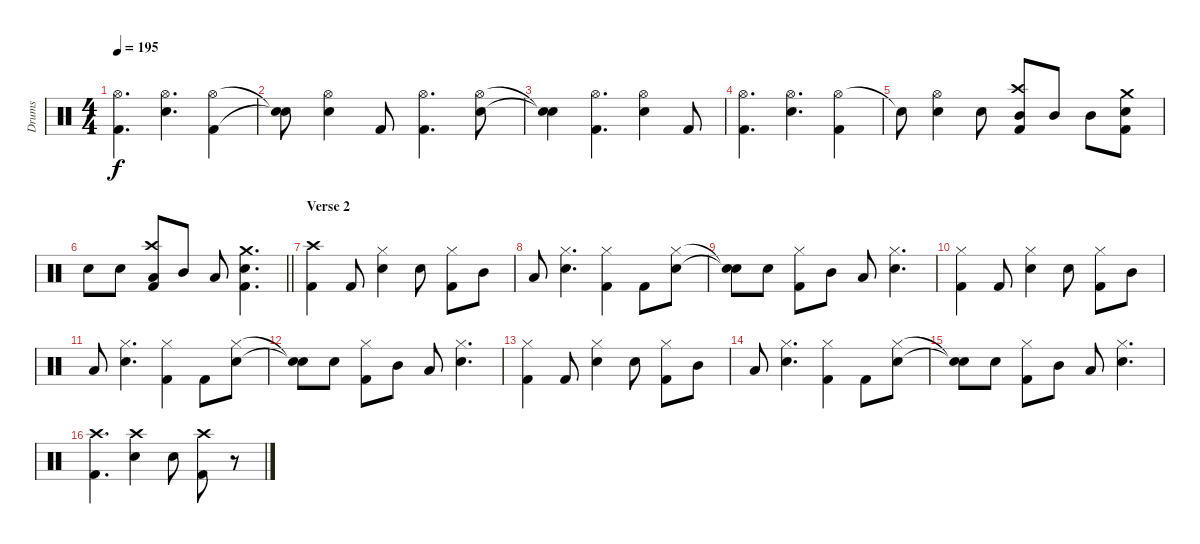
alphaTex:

\track ("Drums" "Drums") {instrument percussion}
\staff {score}
\articulation defaults
\ts (4 4)
\tempo 195
\clef neutral
\ks c
("Hi-Hat (open)" "Kick (hit) 2").4{d dy f} ("Hi-Hat (open)" "Electric Snare (hit)").4{d} ("Hi-Hat (open)" "Kick (hit) 2").4 |
("Snare (hit)"{t} "Snare (hit)"{t}).8 ("Hi-Hat (open)" "Electric Snare (hit)").4 "Kick (hit) 2".8 ("Hi-Hat (open)" "Kick (hit) 2").4{d} ("Hi-Hat (open)" "Electric Snare (hit)").8 |
("Snare (hit)"{t} "Snare (hit)"{t}).4 ("Hi-Hat (open)" "Kick (hit) 2").4{d} ("Hi-Hat (open)" "Electric Snare (hit)").4 "Kick (hit) 2".8 |
("Hi-Hat (open)" "Kick (hit) 2").4{d} ("Hi-Hat (open)" "Electric Snare (hit)").4{d} ("Hi-Hat (open)" "Kick (hit) 2").4 |
"Snare (hit)"{t}.8 ("Hi-Hat (open)" "Electric Snare (hit)").4 "Electric Snare (hit)".8 ("Crash high (hit)" "Mid Tom (hit)" "Kick (hit) 2").8 "Mid Tom (hit)".8 "Mid Tom (hit)".8 ("Crash medium (hit)" "Electric Snare (hit)" "Kick (hit) 2").8 |
\barLineRight lightlight "Electric Snare (hit)".8 "Electric Snare (hit)".8
("Crash high (hit)" "Low Tom (hit)" "Kick (hit) 2").8 "Mid Tom (hit)".8 "Low Tom (hit)".8 ("Crash medium (hit)" "Electric Snare (hit)" "Kick (hit) 2").4{d} |
\section ("" "Verse 2")
("Crash high (hit)" "Kick (hit) 2").4 "Kick (hit) 2".8 ("Hi-Hat (closed)" "Electric Snare (hit)").4 "Electric Snare (hit)".8 ("Hi-Hat (closed)" "Kick (hit) 2").8 "Mid Tom (hit)".8 |
"Low Tom (hit)".8 ("Hi-Hat (closed)" "Electric Snare (hit)").4{d} ("Hi-Hat (closed)" "Kick (hit) 2").4 "Kick (hit) 2".8 ("Hi-Hat (closed)" "Electric Snare (hit)").8 |
("Snare (hit)"{t} "Snare (hit)"{t}).8 "Electric Snare (hit)".8 ("Hi-Hat (closed)" "Kick (hit) 2").8 "Mid Tom (hit)".8 "Low Tom (hit)".8 ("Hi-Hat (closed)" "Electric Snare (hit)").4{d} |
("Hi-Hat (closed)" "Kick (hit) 2").4 "Kick (hit) 2".8 ("Hi-Hat (closed)" "Electric Snare (hit)").4 "Electric Snare (hit)".8 ("Hi-Hat (closed)" "Kick (hit) 2").8 "Mid Tom (hit)".8 |
"Low Tom (hit)".8 ("Hi-Hat (closed)" "Electric Snare (hit)").4{d} ("Hi-Hat (closed)" "Kick (hit) 2").4 "Kick (hit) 2".8 ("Hi-Hat (closed)" "Electric Snare (hit)").8 |
("Snare (hit)"{t} "Snare (hit)"{t}).8 "Electric Snare (hit)".8 ("Hi-Hat (closed)" "Kick (hit) 2").8 "Mid Tom (hit)".8 "Low Tom (hit)".8 ("Hi-Hat (closed)" "Electric Snare (hit)").4{d} |
("Hi-Hat (closed)" "Kick (hit) 2").4 "Kick (hit) 2".8 ("Hi-Hat (closed)" "Electric Snare (hit)").4 "Electric Snare (hit)".8 ("Hi-Hat (closed)" "Kick (hit) 2").8 "Mid Tom (hit)".8 |
"Low Tom (hit)".8 ("Hi-Hat (closed)" "Electric Snare (hit)").4{d} ("Hi-Hat (closed)" "Kick (hit) 2").4 "Kick (hit) 2".8 ("Hi-Hat (closed)" "Electric Snare (hit)").8 |
("Snare (hit)"{t} "Snare (hit)"{t}).8 "Electric Snare (hit)".8 ("Hi-Hat (closed)" "Kick (hit) 2").8 "Mid Tom (hit)".8 "Low Tom (hit)".8 ("Hi-Hat (closed)" "Electric Snare (hit)").4{d} |
("Crash high (hit)" "Kick (hit) 2").4{d} ("Crash high (hit)" "Electric Snare (hit)").4 "Electric Snare (hit)".8 ("Crash high (hit)" "Kick (hit) 2").8 r.8
